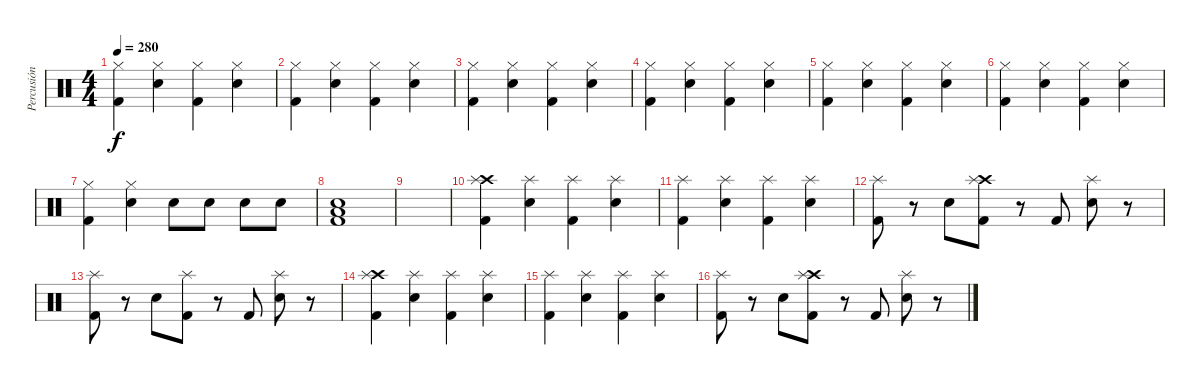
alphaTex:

\track ("Percusión" "Percusión") {instrument percussion}
\staff {score}
\articulation defaults
\ts (4 4)
\tempo 280
\clef neutral
\ks c
("Hi-Hat (closed)" "Kick (hit) 2").4{dy f} ("Snare (hit) 2" "Hi-Hat (closed)").4 ("Hi-Hat (closed)" "Kick (hit) 2").4 ("Snare (hit) 2" "Hi-Hat (closed)").4 |
("Hi-Hat (closed)" "Kick (hit) 2").4 ("Snare (hit) 2" "Hi-Hat (closed)").4 ("Hi-Hat (closed)" "Kick (hit) 2").4 ("Snare (hit) 2" "Hi-Hat (closed)").4 |
("Hi-Hat (closed)" "Kick (hit) 2").4 ("Snare (hit) 2" "Hi-Hat (closed)").4 ("Hi-Hat (closed)" "Kick (hit) 2").4 ("Snare (hit) 2" "Hi-Hat (closed)").4 |
("Hi-Hat (closed)" "Kick (hit) 2").4 ("Snare (hit) 2" "Hi-Hat (closed)").4 ("Hi-Hat (closed)" "Kick (hit) 2").4 ("Snare (hit) 2" "Hi-Hat (closed)").4 |
("Hi-Hat (closed)" "Kick (hit) 2").4 ("Snare (hit) 2" "Hi-Hat (closed)").4 ("Hi-Hat (closed)" "Kick (hit) 2").4 ("Snare (hit) 2" "Hi-Hat (closed)").4 |
("Hi-Hat (closed)" "Kick (hit) 2").4 ("Snare (hit) 2" "Hi-Hat (closed)").4 ("Hi-Hat (closed)" "Kick (hit) 2").4 ("Snare (hit) 2" "Hi-Hat (closed)").4 |
("Hi-Hat (closed)" "Kick (hit) 2").4 ("Snare (hit) 2" "Hi-Hat (closed)").4 "Snare (hit) 2".8 "Snare (hit) 2".8 "Snare (hit) 2".8 "Snare (hit) 2".8 |
("Snare (hit) 2" "Low Tom (hit)" "Kick (hit) 2").1 |
|
("Crash high (hit)" "Splash (hit)" "Kick (hit) 2").4 ("Snare (hit) 2" "Splash (hit)").4 ("Splash (hit)" "Kick (hit) 2").4 ("Snare (hit) 2" "Splash (hit)").4 |
("Splash (hit)" "Kick (hit) 2").4 ("Snare (hit) 2" "Splash (hit)").4 ("Splash (hit)" "Kick (hit) 2").4 ("Snare (hit) 2" "Splash (hit)").4 |
("Splash (hit)" "Kick (hit) 2").8 r.8 "Snare (hit) 2".8 ("Crash high (hit)" "Splash (hit)" "Kick (hit) 2").8 r.8 "Kick (hit) 2".8 ("Snare (hit) 2" "Splash (hit)").8 r.8 |
("Splash (hit)" "Kick (hit) 2").8 r.8 "Snare (hit) 2".8 ("Splash (hit)" "Kick (hit) 2").8 r.8 "Kick (hit) 2".8 ("Snare (hit) 2" "Splash (hit)").8 r.8 |
("Crash high (hit)" "Splash (hit)" "Kick (hit) 2").4 ("Snare (hit) 2" "Splash (hit)").4 ("Splash (hit)" "Kick (hit) 2").4 ("Snare (hit) 2" "Splash (hit)").4 |
("Splash (hit)" "Kick (hit) 2").4 ("Snare (hit) 2" "Splash (hit)").4 ("Splash (hit)" "Kick (hit) 2").4 ("Snare (hit) 2" "Splash (hit)").4 |
("Splash (hit)" "Kick (hit) 2").8 r.8 "Snare (hit) 2".8 ("Crash high (hit)" "Splash (hit)" "Kick (hit) 2").8 r.8 "Kick (hit) 2".8 ("Snare (hit) 2" "Splash (hit)").8 r.8
